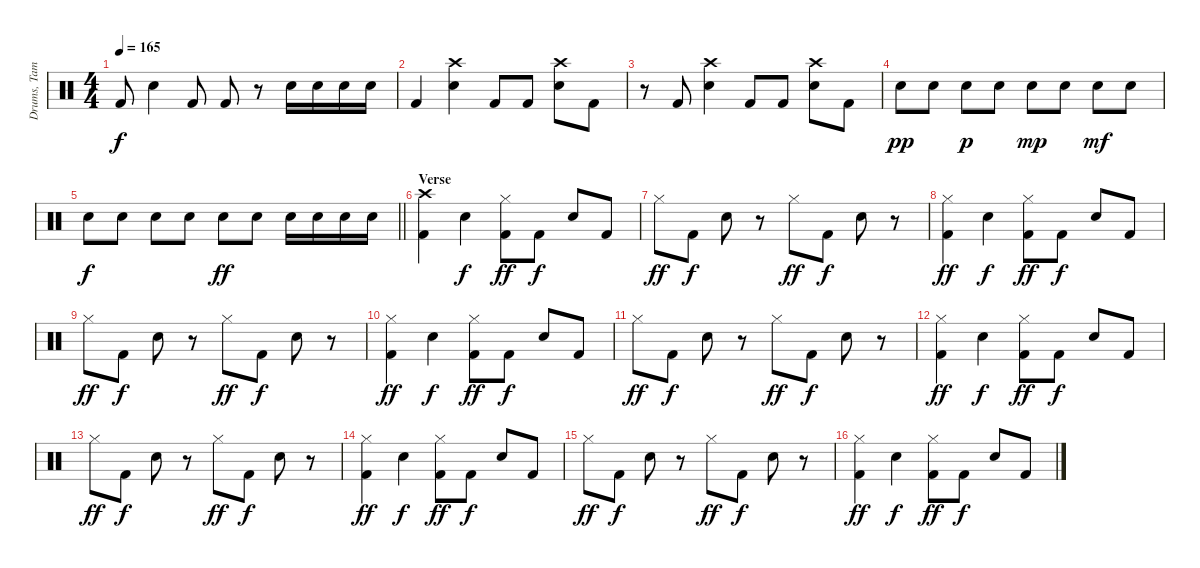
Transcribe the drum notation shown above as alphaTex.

\track ("Drums, Tambourine, Castinets" "Drums, Tam") {instrument percussion}
\staff {score}
\articulation defaults
\ts (4 4)
\tempo 165
\clef neutral
\ks c "Kick (hit) 2".8{dy f} "Snare (hit) 2".4 "Kick (hit) 2".8 "Kick (hit) 2".8
r.8 "Snare (hit) 2".16 "Snare (hit) 2".16 "Snare (hit) 2".16 "Snare (hit) 2".16 |
"Kick (hit) 2".4 ("Crash high (hit)" "Snare (hit) 2").4 "Kick (hit) 2".8 "Kick (hit) 2".8 ("Crash high (hit)" "Snare (hit) 2").8 "Kick (hit) 2".8 |
r.8 "Kick (hit) 2".8 ("Crash high (hit)" "Snare (hit) 2").4 "Kick (hit) 2".8 "Kick (hit) 2".8 ("Crash high (hit)" "Snare (hit) 2").8 "Kick (hit) 2".8 |
"Snare (hit) 2".8{dy pp} "Snare (hit) 2".8 "Snare (hit) 2".8{dy p} "Snare (hit) 2".8 "Snare (hit) 2".8{dy mp} "Snare (hit) 2".8 "Snare (hit) 2".8{dy mf} "Snare (hit) 2".8 |
\barLineRight lightlight "Snare (hit) 2".8{dy f} "Snare (hit) 2".8 "Snare (hit) 2".8 "Snare (hit) 2".8 "Snare (hit) 2".8{dy ff} "Snare (hit) 2".8 "Snare (hit) 2".16 "Snare (hit) 2".16 "Snare (hit) 2".16 "Snare (hit) 2".16
|
\section ("" "Verse")
("Crash high (hit)" "Kick (hit) 2").4 "Snare (hit) 2".4{dy f} ("Hi-Hat (closed)" "Kick (hit) 2").8{dy ff} "Kick (hit) 2".8{dy f} "Snare (hit) 2".8 "Kick (hit) 2".8 |
"Hi-Hat (closed)".8{dy ff} "Kick (hit) 2".8{dy f} "Snare (hit) 2".8 r.8 "Hi-Hat (closed)".8{dy ff} "Kick (hit) 2".8{dy f} "Snare (hit) 2".8 r.8 |
("Hi-Hat (closed)" "Kick (hit) 2").4{dy ff} "Snare (hit) 2".4{dy f} ("Hi-Hat (closed)" "Kick (hit) 2").8{dy ff} "Kick (hit) 2".8{dy f} "Snare (hit) 2".8 "Kick (hit) 2".8 |
"Hi-Hat (closed)".8{dy ff} "Kick (hit) 2".8{dy f} "Snare (hit) 2".8 r.8 "Hi-Hat (closed)".8{dy ff} "Kick (hit) 2".8{dy f} "Snare (hit) 2".8 r.8 |
("Hi-Hat (closed)" "Kick (hit) 2").4{dy ff} "Snare (hit) 2".4{dy f} ("Hi-Hat (closed)" "Kick (hit) 2").8{dy ff} "Kick (hit) 2".8{dy f} "Snare (hit) 2".8 "Kick (hit) 2".8 |
"Hi-Hat (closed)".8{dy ff} "Kick (hit) 2".8{dy f} "Snare (hit) 2".8 r.8 "Hi-Hat (closed)".8{dy ff} "Kick (hit) 2".8{dy f} "Snare (hit) 2".8 r.8 |
("Hi-Hat (closed)" "Kick (hit) 2").4{dy ff} "Snare (hit) 2".4{dy f} ("Hi-Hat (closed)" "Kick (hit) 2").8{dy ff} "Kick (hit) 2".8{dy f} "Snare (hit) 2".8 "Kick (hit) 2".8 |
"Hi-Hat (closed)".8{dy ff} "Kick (hit) 2".8{dy f} "Snare (hit) 2".8 r.8 "Hi-Hat (closed)".8{dy ff} "Kick (hit) 2".8{dy f} "Snare (hit) 2".8 r.8 |
("Hi-Hat (closed)" "Kick (hit) 2").4{dy ff} "Snare (hit) 2".4{dy f} ("Hi-Hat (closed)" "Kick (hit) 2").8{dy ff} "Kick (hit) 2".8{dy f} "Snare (hit) 2".8 "Kick (hit) 2".8 |
"Hi-Hat (closed)".8{dy ff} "Kick (hit) 2".8{dy f} "Snare (hit) 2".8 r.8 "Hi-Hat (closed)".8{dy ff} "Kick (hit) 2".8{dy f} "Snare (hit) 2".8 r.8 |
("Hi-Hat (closed)" "Kick (hit) 2").4{dy ff} "Snare (hit) 2".4{dy f} ("Hi-Hat (closed)" "Kick (hit) 2").8{dy ff} "Kick (hit) 2".8{dy f} "Snare (hit) 2".8 "Kick (hit) 2".8
